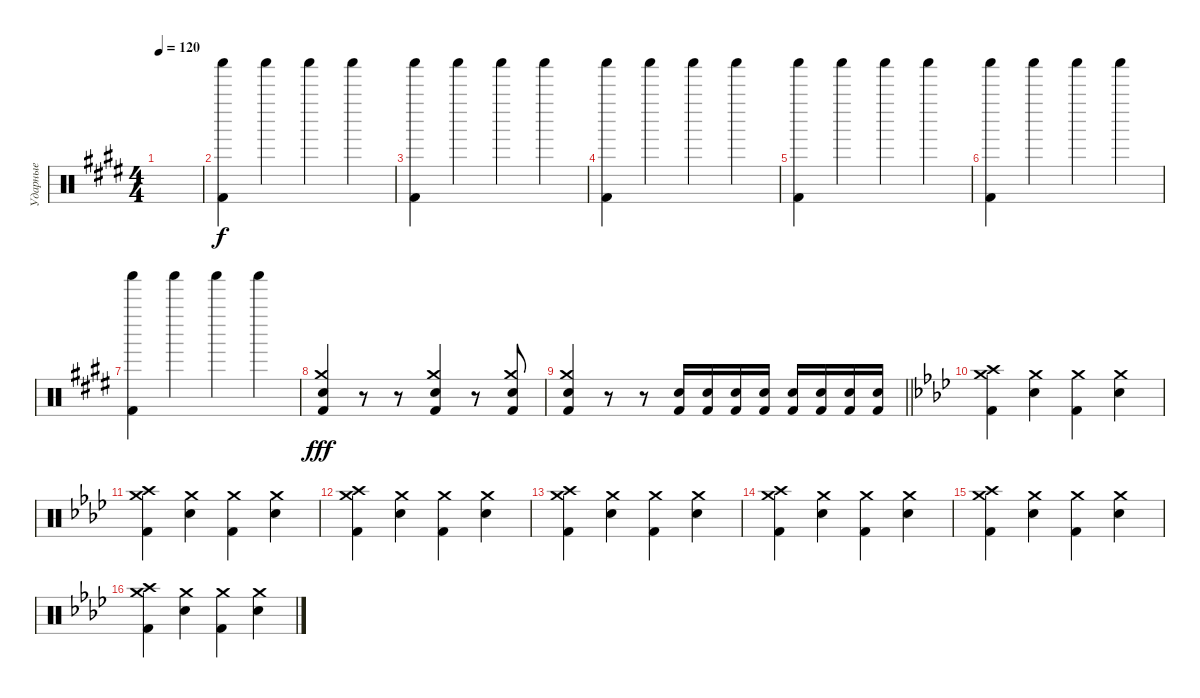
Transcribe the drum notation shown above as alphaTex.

\track ("Ударные" "Ударные") {instrument percussion}
\staff {score}
\articulation defaults
\ts (4 4)
\tempo 120
\clef neutral
\ks e
|
("Shaker (hit)" "Kick (hit) 2").4 "Shaker (hit)".4 "Shaker (hit)".4 "Shaker (hit)".4 |
("Shaker (hit)" "Kick (hit) 2").4 "Shaker (hit)".4 "Shaker (hit)".4 "Shaker (hit)".4 |
("Shaker (hit)" "Kick (hit) 2").4 "Shaker (hit)".4 "Shaker (hit)".4 "Shaker (hit)".4 |
("Shaker (hit)" "Kick (hit) 2").4 "Shaker (hit)".4 "Shaker (hit)".4 "Shaker (hit)".4 |
("Shaker (hit)" "Kick (hit) 2").4 "Shaker (hit)".4 "Shaker (hit)".4 "Shaker (hit)".4 |
("Shaker (hit)" "Kick (hit) 2").4 "Shaker (hit)".4 "Shaker (hit)".4 "Shaker (hit)".4 |
("Crash medium (hit)" "Snare (hit) 2" "Kick (hit) 2").4{dy fff volume 16} r.8 r.8 ("Crash medium (hit)" "Snare (hit) 2" "Kick (hit) 2").4 r.8 ("Crash medium (hit)" "Snare (hit) 2" "Kick (hit) 2").8 |
\barLineRight lightlight
("Crash medium (hit)" "Snare (hit) 2" "Kick (hit) 2").4 r.8 r.8 ("Snare (hit) 2" "Kick (hit) 2").16 ("Snare (hit) 2" "Kick (hit) 2").16 ("Snare (hit) 2" "Kick (hit) 2").16 ("Snare (hit) 2" "Kick (hit) 2").16 ("Snare (hit) 2" "Kick (hit) 2").16 ("Snare (hit) 2" "Kick (hit) 2").16 ("Snare (hit) 2" "Kick (hit) 2").16 ("Snare (hit) 2" "Kick (hit) 2").16 |
\ks ab
("Crash high (hit)" "Crash medium (hit)" "Kick (hit) 2").4 ("Crash medium (hit)" "Snare (hit) 2").4 ("Crash medium (hit)" "Kick (hit) 2").4 ("Crash medium (hit)" "Snare (hit) 2").4 |
("Crash high (hit)" "Crash medium (hit)" "Kick (hit) 2").4 ("Crash medium (hit)" "Snare (hit) 2").4 ("Crash medium (hit)" "Kick (hit) 2").4 ("Crash medium (hit)" "Snare (hit) 2").4 |
("Crash high (hit)" "Crash medium (hit)" "Kick (hit) 2").4 ("Crash medium (hit)" "Snare (hit) 2").4 ("Crash medium (hit)" "Kick (hit) 2").4 ("Crash medium (hit)" "Snare (hit) 2").4 |
("Crash high (hit)" "Crash medium (hit)" "Kick (hit) 2").4 ("Crash medium (hit)" "Snare (hit) 2").4 ("Crash medium (hit)" "Kick (hit) 2").4 ("Crash medium (hit)" "Snare (hit) 2").4 |
("Crash high (hit)" "Crash medium (hit)" "Kick (hit) 2").4 ("Crash medium (hit)" "Snare (hit) 2").4 ("Crash medium (hit)" "Kick (hit) 2").4 ("Crash medium (hit)" "Snare (hit) 2").4 |
("Crash high (hit)" "Crash medium (hit)" "Kick (hit) 2").4 ("Crash medium (hit)" "Snare (hit) 2").4 ("Crash medium (hit)" "Kick (hit) 2").4 ("Crash medium (hit)" "Snare (hit) 2").4 |
("Crash high (hit)" "Crash medium (hit)" "Kick (hit) 2").4 ("Crash medium (hit)" "Snare (hit) 2").4 ("Crash medium (hit)" "Kick (hit) 2").4 ("Crash medium (hit)" "Snare (hit) 2").4
